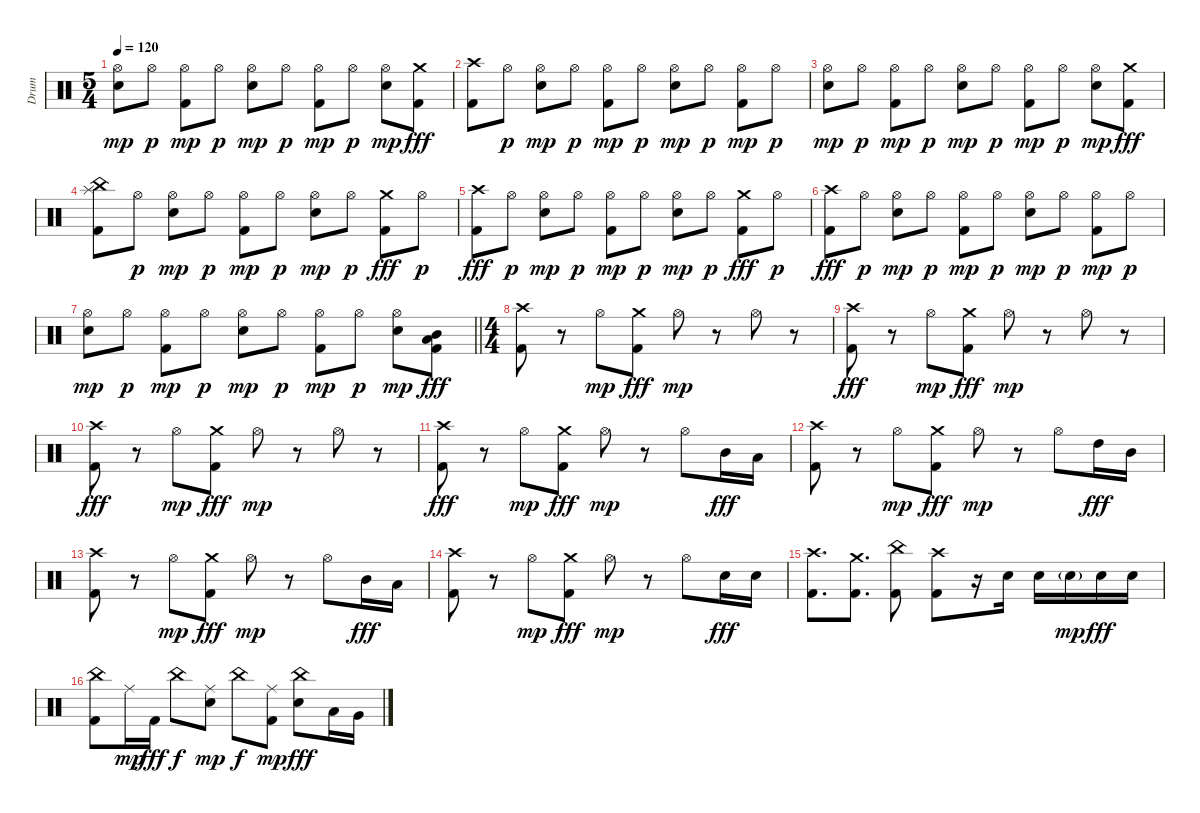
\track ("Drum" "Drum") {instrument percussion}
\staff {score}
\articulation defaults
\ts (5 4)
\tempo 120
\clef neutral
\ks c
("Electric Snare (hit)" "Hi-Hat (open)").8{dy mp} "Hi-Hat (open)".8{dy p} ("Kick (hit) 2" "Hi-Hat (open)").8{dy mp} "Hi-Hat (open)".8{dy p} ("Electric Snare (hit)" "Hi-Hat (open)").8{dy mp} "Hi-Hat (open)".8{dy p} ("Kick (hit) 2" "Hi-Hat (open)").8{dy mp} "Hi-Hat (open)".8{dy p} ("Electric Snare (hit)" "Hi-Hat (open)").8{dy mp} ("Kick (hit) 2" "Crash medium (hit)").8{dy fff} |
("Kick (hit) 2" "Crash high (hit)").8 "Hi-Hat (open)".8{dy p} ("Electric Snare (hit)" "Hi-Hat (open)").8{dy mp} "Hi-Hat (open)".8{dy p} ("Kick (hit) 2" "Hi-Hat (open)").8{dy mp} "Hi-Hat (open)".8{dy p} ("Electric Snare (hit)" "Hi-Hat (open)").8{dy mp} "Hi-Hat (open)".8{dy p} ("Kick (hit) 2" "Hi-Hat (open)").8{dy mp} "Hi-Hat (open)".8{dy p} |
("Electric Snare (hit)" "Hi-Hat (open)").8{dy mp} "Hi-Hat (open)".8{dy p} ("Kick (hit) 2" "Hi-Hat (open)").8{dy mp} "Hi-Hat (open)".8{dy p} ("Electric Snare (hit)" "Hi-Hat (open)").8{dy mp} "Hi-Hat (open)".8{dy p} ("Kick (hit) 2" "Hi-Hat (open)").8{dy mp} "Hi-Hat (open)".8{dy p} ("Electric Snare (hit)" "Hi-Hat (open)").8{dy mp} ("Kick (hit) 2" "Crash medium (hit)").8{dy fff} |
("Kick (hit) 2" "China (hit)" "Splash (hit)").8 "Hi-Hat (open)".8{dy p} ("Electric Snare (hit)" "Hi-Hat (open)").8{dy mp} "Hi-Hat (open)".8{dy p} ("Kick (hit) 2" "Hi-Hat (open)").8{dy mp} "Hi-Hat (open)".8{dy p} ("Electric Snare (hit)" "Hi-Hat (open)").8{dy mp} "Hi-Hat (open)".8{dy p} ("Kick (hit) 2" "Crash medium (hit)").8{dy fff} "Hi-Hat (open)".8{dy p} |
("Kick (hit) 2" "Crash high (hit)").8{dy fff} "Hi-Hat (open)".8{dy p} ("Electric Snare (hit)" "Hi-Hat (open)").8{dy mp} "Hi-Hat (open)".8{dy p} ("Kick (hit) 2" "Hi-Hat (open)").8{dy mp} "Hi-Hat (open)".8{dy p} ("Electric Snare (hit)" "Hi-Hat (open)").8{dy mp} "Hi-Hat (open)".8{dy p} ("Kick (hit) 2" "Crash medium (hit)").8{dy fff} "Hi-Hat (open)".8{dy p} |
("Kick (hit) 2" "Crash high (hit)").8{dy fff} "Hi-Hat (open)".8{dy p} ("Electric Snare (hit)" "Hi-Hat (open)").8{dy mp} "Hi-Hat (open)".8{dy p} ("Kick (hit) 2" "Hi-Hat (open)").8{dy mp} "Hi-Hat (open)".8{dy p} ("Electric Snare (hit)" "Hi-Hat (open)").8{dy mp} "Hi-Hat (open)".8{dy p} ("Kick (hit) 2" "Hi-Hat (open)").8{dy mp} "Hi-Hat (open)".8{dy p} |
\barLineRight lightlight
("Electric Snare (hit)" "Hi-Hat (open)").8{dy mp} "Hi-Hat (open)".8{dy p} ("Kick (hit) 2" "Hi-Hat (open)").8{dy mp} "Hi-Hat (open)".8{dy p} ("Electric Snare (hit)" "Hi-Hat (open)").8{dy mp} "Hi-Hat (open)".8{dy p} ("Kick (hit) 2" "Hi-Hat (open)").8{dy mp} "Hi-Hat (open)".8{dy p} ("Electric Snare (hit)" "Hi-Hat (open)").8{dy mp} ("Kick (hit) 2" "Mid Tom (hit)" "Low Tom (hit)").8{dy fff} |
\ts (4 4)
("Kick (hit) 2" "Crash high (hit)").8 r.8 "Hi-Hat (open)".8{dy mp} ("Kick (hit) 2" "Crash medium (hit)").8{dy fff} "Hi-Hat (open)".8{dy mp} r.8 "Hi-Hat (open)".8 r.8 |
("Kick (hit) 2" "Crash high (hit)").8{dy fff} r.8 "Hi-Hat (open)".8{dy mp} ("Kick (hit) 2" "Crash medium (hit)").8{dy fff} "Hi-Hat (open)".8{dy mp} r.8 "Hi-Hat (open)".8 r.8 |
("Kick (hit) 2" "Crash high (hit)").8{dy fff} r.8 "Hi-Hat (open)".8{dy mp} ("Kick (hit) 2" "Crash medium (hit)").8{dy fff} "Hi-Hat (open)".8{dy mp} r.8 "Hi-Hat (open)".8 r.8 |
("Kick (hit) 2" "Crash high (hit)").8{dy fff} r.8 "Hi-Hat (open)".8{dy mp} ("Kick (hit) 2" "Crash medium (hit)").8{dy fff} "Hi-Hat (open)".8{dy mp} r.8 "Hi-Hat (open)".8 "Mid Tom (hit)".16{dy fff} "Low Tom (hit)".16 |
("Kick (hit) 2" "Crash high (hit)").8 r.8 "Hi-Hat (open)".8{dy mp} ("Kick (hit) 2" "Crash medium (hit)").8{dy fff} "Hi-Hat (open)".8{dy mp} r.8 "Hi-Hat (open)".8 "High Tom (hit)".16{dy fff} "Mid Tom (hit)".16 |
("Kick (hit) 2" "Crash high (hit)").8 r.8 "Hi-Hat (open)".8{dy mp} ("Kick (hit) 2" "Crash medium (hit)").8{dy fff} "Hi-Hat (open)".8{dy mp} r.8 "Hi-Hat (open)".8 "Mid Tom (hit)".16{dy fff} "Low Tom (hit)".16 |
("Kick (hit) 2" "Crash high (hit)").8 r.8 "Hi-Hat (open)".8{dy mp} ("Kick (hit) 2" "Crash medium (hit)").8{dy fff} "Hi-Hat (open)".8{dy mp} r.8 "Hi-Hat (open)".8 "Electric Snare (hit)".16{dy fff} "Electric Snare (hit)".16 |
("Kick (hit) 2" "Crash high (hit)").8{d} ("Kick (hit) 2" "Crash medium (hit)").8{d} ("Kick (hit) 2" "China (hit)").8 ("Kick (hit) 2" "Crash high (hit)").8 r.16 "Electric Snare (hit)".16 "Electric Snare (hit)".16 "Electric Snare (hit)"{g}.16{dy mp} "Electric Snare (hit)".16{dy fff} "Electric Snare (hit)".16 |
("Kick (hit) 2" "China (hit)").8 "Ride (middle)".16{dy mp} "Kick (hit) 2".16{dy fff} "China (hit)".8{dy f} ("Electric Snare (hit)" "Ride (middle)").8{dy mp} "China (hit)".8{dy f} ("Kick (hit) 2" "Ride (middle)").8{dy mp} ("Electric Snare (hit)" "China (hit)").8{dy fff} "Low Tom (hit)".16 "Very Low Tom (hit)".16
